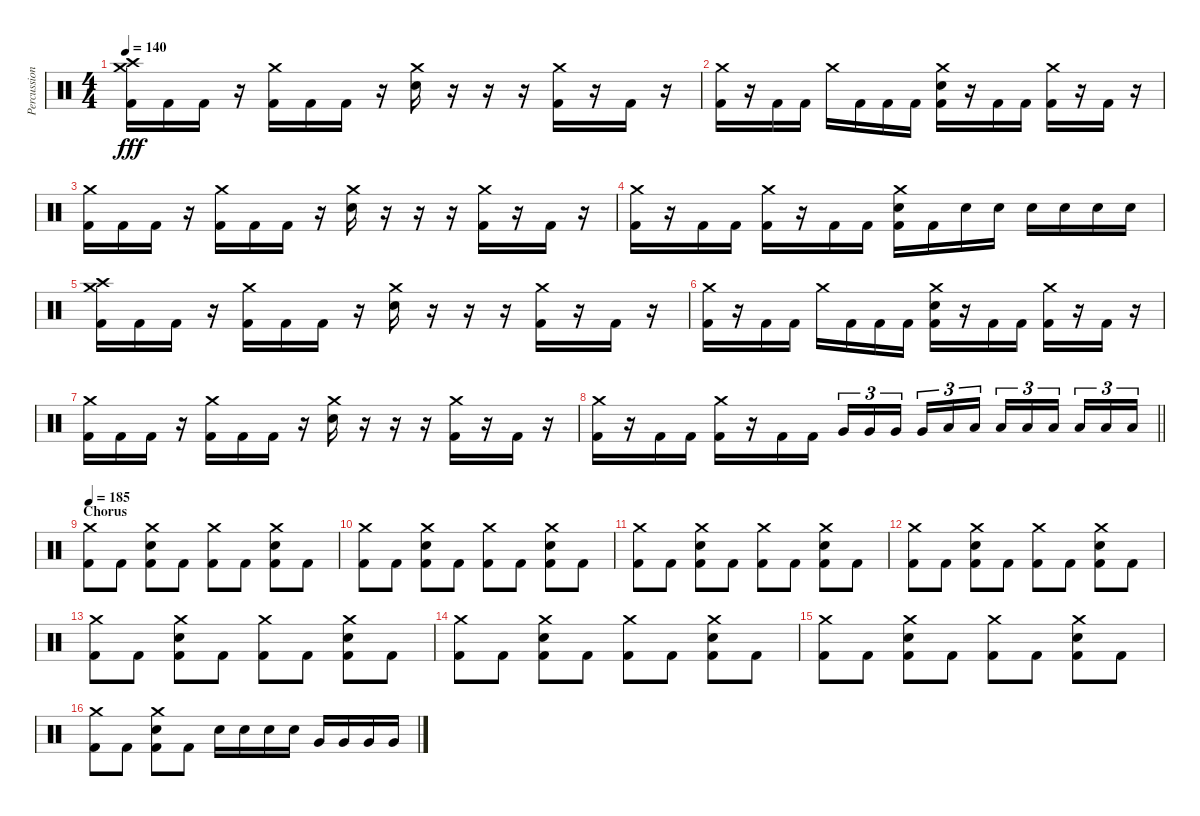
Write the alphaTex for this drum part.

\track ("Percussion" "Percussion") {instrument percussion}
\staff {score}
\articulation defaults
\ts (4 4)
\tempo 140
\clef neutral
\ks c
("Crash medium (hit)" "Crash high (hit)" "Kick (hit) 2").16{dy fff} "Kick (hit) 2".16 "Kick (hit) 2".16 r.16 ("Crash medium (hit)" "Kick (hit) 2").16 "Kick (hit) 2".16 "Kick (hit) 2".16 r.16 ("Crash medium (hit)" "Electric Snare (hit)").16 r.16 r.16 r.16 ("Crash medium (hit)" "Kick (hit) 2").16 r.16 "Kick (hit) 2".16 r.16 |
("Crash medium (hit)" "Kick (hit) 2").16 r.16 "Kick (hit) 2".16 "Kick (hit) 2".16 "Crash medium (hit)".16 "Kick (hit) 2".16 "Kick (hit) 2".16 "Kick (hit) 2".16 ("Crash medium (hit)" "Electric Snare (hit)" "Kick (hit) 2").16 r.16 "Kick (hit) 2".16 "Kick (hit) 2".16 ("Crash medium (hit)" "Kick (hit) 2").16 r.16 "Kick (hit) 2".16 r.16 |
("Crash medium (hit)" "Kick (hit) 2").16 "Kick (hit) 2".16 "Kick (hit) 2".16 r.16 ("Crash medium (hit)" "Kick (hit) 2").16 "Kick (hit) 2".16 "Kick (hit) 2".16 r.16 ("Crash medium (hit)" "Electric Snare (hit)").16 r.16 r.16 r.16 ("Crash medium (hit)" "Kick (hit) 2").16 r.16 "Kick (hit) 2".16 r.16 |
("Crash medium (hit)" "Kick (hit) 2").16 r.16 "Kick (hit) 2".16 "Kick (hit) 2".16 ("Crash medium (hit)" "Kick (hit) 2").16 r.16 "Kick (hit) 2".16 "Kick (hit) 2".16 ("Crash medium (hit)" "Electric Snare (hit)" "Kick (hit) 2").16 "Kick (hit) 2".16 "Electric Snare (hit)".16 "Electric Snare (hit)".16 "Electric Snare (hit)".16 "Electric Snare (hit)".16 "Electric Snare (hit)".16 "Electric Snare (hit)".16 |
("Crash medium (hit)" "Crash high (hit)" "Kick (hit) 2").16 "Kick (hit) 2".16 "Kick (hit) 2".16 r.16 ("Crash medium (hit)" "Kick (hit) 2").16 "Kick (hit) 2".16 "Kick (hit) 2".16 r.16 ("Crash medium (hit)" "Electric Snare (hit)").16 r.16 r.16 r.16 ("Crash medium (hit)" "Kick (hit) 2").16 r.16 "Kick (hit) 2".16 r.16 |
("Crash medium (hit)" "Kick (hit) 2").16 r.16 "Kick (hit) 2".16 "Kick (hit) 2".16 "Crash medium (hit)".16 "Kick (hit) 2".16 "Kick (hit) 2".16 "Kick (hit) 2".16 ("Crash medium (hit)" "Electric Snare (hit)" "Kick (hit) 2").16 r.16 "Kick (hit) 2".16 "Kick (hit) 2".16 ("Crash medium (hit)" "Kick (hit) 2").16 r.16 "Kick (hit) 2".16 r.16 |
("Crash medium (hit)" "Kick (hit) 2").16 "Kick (hit) 2".16 "Kick (hit) 2".16 r.16 ("Crash medium (hit)" "Kick (hit) 2").16 "Kick (hit) 2".16 "Kick (hit) 2".16 r.16 ("Crash medium (hit)" "Electric Snare (hit)").16 r.16 r.16 r.16 ("Crash medium (hit)" "Kick (hit) 2").16 r.16 "Kick (hit) 2".16 r.16 |
\barLineRight lightlight
("Crash medium (hit)" "Kick (hit) 2").16 r.16 "Kick (hit) 2".16 "Kick (hit) 2".16 ("Crash medium (hit)" "Kick (hit) 2").16 r.16 "Kick (hit) 2".16 "Kick (hit) 2".16 "Very Low Tom (hit)".16{tu (3 2)} "Very Low Tom (hit)".16{tu (3 2)} "Very Low Tom (hit)".16{tu (3 2) beam splitsecondary} "Very Low Tom (hit)".16{tu (3 2)} "Low Floor Tom (hit)".16{tu (3 2)} "Low Floor Tom (hit)".16{tu (3 2)} "Low Floor Tom (hit)".16{tu (3 2)} "Low Floor Tom (hit)".16{tu (3 2)} "Low Tom (hit)".16{tu (3 2) beam splitsecondary} "Low Tom (hit)".16{tu (3 2)} "Low Tom (hit)".16{tu (3 2)} "Low Tom (hit)".16{tu (3 2)} |
\section ("" "Chorus")
\tempo 185
("Crash medium (hit)" "Kick (hit) 2").8 "Kick (hit) 2".8 ("Crash medium (hit)" "Electric Snare (hit)" "Kick (hit) 2").8 "Kick (hit) 2".8 ("Crash medium (hit)" "Kick (hit) 2").8 "Kick (hit) 2".8 ("Crash medium (hit)" "Electric Snare (hit)" "Kick (hit) 2").8 "Kick (hit) 2".8 |
("Crash medium (hit)" "Kick (hit) 2").8 "Kick (hit) 2".8 ("Crash medium (hit)" "Electric Snare (hit)" "Kick (hit) 2").8 "Kick (hit) 2".8 ("Crash medium (hit)" "Kick (hit) 2").8 "Kick (hit) 2".8 ("Crash medium (hit)" "Electric Snare (hit)" "Kick (hit) 2").8 "Kick (hit) 2".8 |
("Crash medium (hit)" "Kick (hit) 2").8 "Kick (hit) 2".8 ("Crash medium (hit)" "Electric Snare (hit)" "Kick (hit) 2").8 "Kick (hit) 2".8 ("Crash medium (hit)" "Kick (hit) 2").8 "Kick (hit) 2".8 ("Crash medium (hit)" "Electric Snare (hit)" "Kick (hit) 2").8 "Kick (hit) 2".8 |
("Crash medium (hit)" "Kick (hit) 2").8 "Kick (hit) 2".8 ("Crash medium (hit)" "Electric Snare (hit)" "Kick (hit) 2").8 "Kick (hit) 2".8 ("Crash medium (hit)" "Kick (hit) 2").8 "Kick (hit) 2".8 ("Crash medium (hit)" "Electric Snare (hit)" "Kick (hit) 2").8 "Kick (hit) 2".8 |
("Crash medium (hit)" "Kick (hit) 2").8 "Kick (hit) 2".8 ("Crash medium (hit)" "Electric Snare (hit)" "Kick (hit) 2").8 "Kick (hit) 2".8 ("Crash medium (hit)" "Kick (hit) 2").8 "Kick (hit) 2".8 ("Crash medium (hit)" "Electric Snare (hit)" "Kick (hit) 2").8 "Kick (hit) 2".8 |
("Crash medium (hit)" "Kick (hit) 2").8 "Kick (hit) 2".8 ("Crash medium (hit)" "Electric Snare (hit)" "Kick (hit) 2").8 "Kick (hit) 2".8 ("Crash medium (hit)" "Kick (hit) 2").8 "Kick (hit) 2".8 ("Crash medium (hit)" "Electric Snare (hit)" "Kick (hit) 2").8 "Kick (hit) 2".8 |
("Crash medium (hit)" "Kick (hit) 2").8 "Kick (hit) 2".8 ("Crash medium (hit)" "Electric Snare (hit)" "Kick (hit) 2").8 "Kick (hit) 2".8 ("Crash medium (hit)" "Kick (hit) 2").8 "Kick (hit) 2".8 ("Crash medium (hit)" "Electric Snare (hit)" "Kick (hit) 2").8 "Kick (hit) 2".8 |
("Crash medium (hit)" "Kick (hit) 2").8 "Kick (hit) 2".8 ("Crash medium (hit)" "Electric Snare (hit)" "Kick (hit) 2").8 "Kick (hit) 2".8 "Electric Snare (hit)".16 "Electric Snare (hit)".16 "Electric Snare (hit)".16 "Electric Snare (hit)".16 "Very Low Tom (hit)".16 "Very Low Tom (hit)".16 "Very Low Tom (hit)".16 "Very Low Tom (hit)".16
